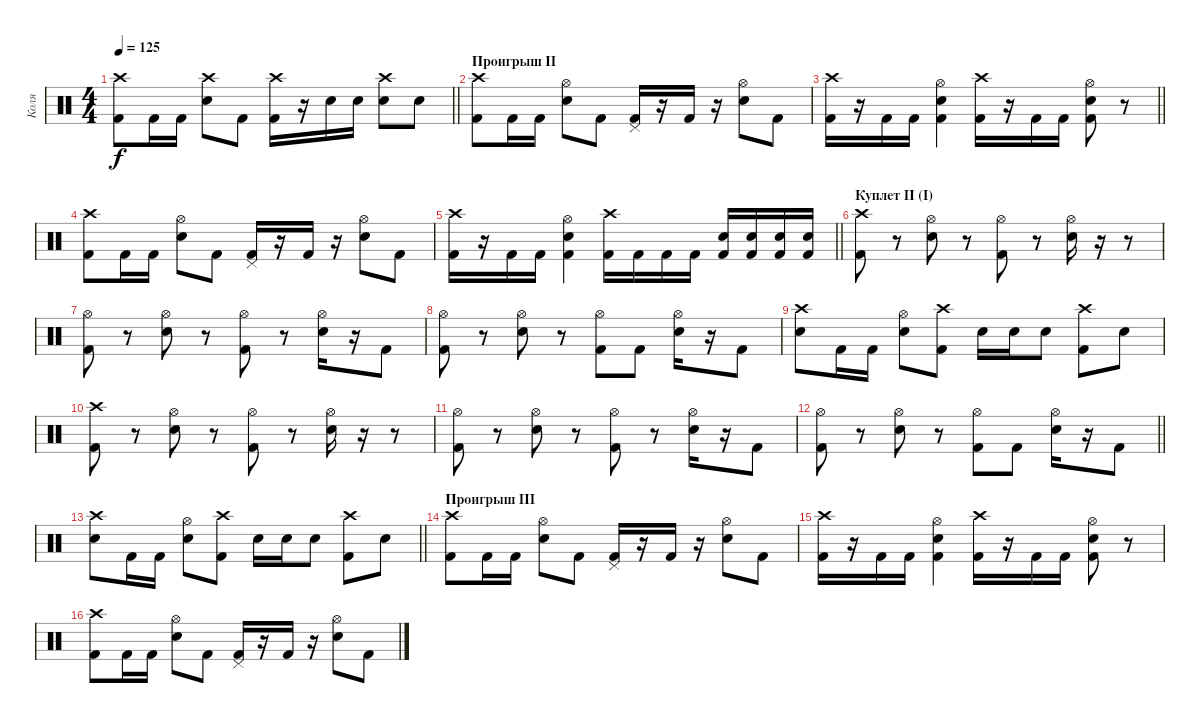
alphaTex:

\track ("Коля" "Коля") {instrument percussion}
\staff {score}
\articulation defaults
\ts (4 4)
\tempo 125
\clef neutral
\barLineRight lightlight
\ks c
("Kick (hit) 2" "Crash high (hit)").8{dy f} "Kick (hit) 2".16 "Kick (hit) 2".16 ("Electric Snare (hit)" "Crash high (hit)").8 "Kick (hit) 2".8 ("Kick (hit) 2" "Crash high (hit)").16 r.16 "Electric Snare (hit)".16 "Electric Snare (hit)".16 ("Electric Snare (hit)" "Crash high (hit)").8 "Electric Snare (hit)".8 |
\section ("" "Проигрыш II")
("Kick (hit) 2" "Crash high (hit)").8 "Kick (hit) 2".16 "Kick (hit) 2".16 ("Electric Snare (hit)" "Hi-Hat (open)").8 "Kick (hit) 2".8 ("Kick (hit) 2" "Pedal Hi-Hat (hit)").16 r.16 "Kick (hit) 2".16 r.16 ("Electric Snare (hit)" "Hi-Hat (open)").8 "Kick (hit) 2".8 |
\barLineRight lightlight
("Kick (hit) 2" "Crash high (hit)").16 r.16 "Kick (hit) 2".16 "Kick (hit) 2".16 ("Kick (hit) 2" "Electric Snare (hit)" "Hi-Hat (open)").4 ("Kick (hit) 2" "Crash high (hit)").16 r.16 "Kick (hit) 2".16 "Kick (hit) 2".16 ("Kick (hit) 2" "Electric Snare (hit)" "Hi-Hat (open)").8 r.8 |
("Kick (hit) 2" "Crash high (hit)").8 "Kick (hit) 2".16 "Kick (hit) 2".16 ("Electric Snare (hit)" "Hi-Hat (open)").8 "Kick (hit) 2".8 ("Kick (hit) 2" "Pedal Hi-Hat (hit)").16 r.16 "Kick (hit) 2".16 r.16 ("Electric Snare (hit)" "Hi-Hat (open)").8 "Kick (hit) 2".8 |
\barLineRight lightlight
("Kick (hit) 2" "Crash high (hit)").16 r.16 "Kick (hit) 2".16 "Kick (hit) 2".16 ("Kick (hit) 2" "Electric Snare (hit)" "Hi-Hat (open)").4 ("Kick (hit) 2" "Crash high (hit)").16 "Kick (hit) 2".16 "Kick (hit) 2".16 "Kick (hit) 2".16 ("Kick (hit) 2" "Electric Snare (hit)").16 ("Kick (hit) 2" "Electric Snare (hit)").16 ("Kick (hit) 2" "Electric Snare (hit)").16 ("Kick (hit) 2" "Electric Snare (hit)").16 |
\section ("" "Куплет II (I)")
("Kick (hit) 2" "Crash high (hit)").8 r.8 ("Electric Snare (hit)" "Hi-Hat (open)").8 r.8 ("Kick (hit) 2" "Hi-Hat (open)").8 r.8 ("Electric Snare (hit)" "Hi-Hat (open)").16 r.16 r.8 |
("Kick (hit) 2" "Hi-Hat (open)").8 r.8 ("Electric Snare (hit)" "Hi-Hat (open)").8 r.8 ("Kick (hit) 2" "Hi-Hat (open)").8 r.8 ("Electric Snare (hit)" "Hi-Hat (open)").16 r.16 "Kick (hit) 2".8 |
("Kick (hit) 2" "Hi-Hat (open)").8 r.8 ("Electric Snare (hit)" "Hi-Hat (open)").8 r.8 ("Kick (hit) 2" "Hi-Hat (open)").8 "Kick (hit) 2".8 ("Electric Snare (hit)" "Hi-Hat (open)").16 r.16 "Kick (hit) 2".8 |
("Electric Snare (hit)" "Crash high (hit)").8 "Kick (hit) 2".16 "Kick (hit) 2".16 ("Electric Snare (hit)" "Hi-Hat (open)").8 ("Kick (hit) 2" "Crash high (hit)").8 "Electric Snare (hit)".16 "Electric Snare (hit)".16 "Electric Snare (hit)".8 ("Kick (hit) 2" "Crash high (hit)").8 "Electric Snare (hit)".8 |
("Kick (hit) 2" "Crash high (hit)").8 r.8 ("Electric Snare (hit)" "Hi-Hat (open)").8 r.8 ("Kick (hit) 2" "Hi-Hat (open)").8 r.8 ("Electric Snare (hit)" "Hi-Hat (open)").16 r.16 r.8 |
("Kick (hit) 2" "Hi-Hat (open)").8 r.8 ("Electric Snare (hit)" "Hi-Hat (open)").8 r.8 ("Kick (hit) 2" "Hi-Hat (open)").8 r.8 ("Electric Snare (hit)" "Hi-Hat (open)").16 r.16 "Kick (hit) 2".8 |
\barLineRight lightlight
("Kick (hit) 2" "Hi-Hat (open)").8 r.8 ("Electric Snare (hit)" "Hi-Hat (open)").8 r.8 ("Kick (hit) 2" "Hi-Hat (open)").8 "Kick (hit) 2".8 ("Electric Snare (hit)" "Hi-Hat (open)").16 r.16 "Kick (hit) 2".8 |
\barLineRight lightlight
("Electric Snare (hit)" "Crash high (hit)").8 "Kick (hit) 2".16 "Kick (hit) 2".16 ("Electric Snare (hit)" "Hi-Hat (open)").8 ("Kick (hit) 2" "Crash high (hit)").8 "Electric Snare (hit)".16 "Electric Snare (hit)".16 "Electric Snare (hit)".8 ("Kick (hit) 2" "Crash high (hit)").8 "Electric Snare (hit)".8 |
\section ("" "Проигрыш III")
("Kick (hit) 2" "Crash high (hit)").8 "Kick (hit) 2".16 "Kick (hit) 2".16 ("Electric Snare (hit)" "Hi-Hat (open)").8 "Kick (hit) 2".8 ("Kick (hit) 2" "Pedal Hi-Hat (hit)").16 r.16 "Kick (hit) 2".16 r.16 ("Electric Snare (hit)" "Hi-Hat (open)").8 "Kick (hit) 2".8 |
("Kick (hit) 2" "Crash high (hit)").16 r.16 "Kick (hit) 2".16 "Kick (hit) 2".16 ("Kick (hit) 2" "Electric Snare (hit)" "Hi-Hat (open)").4 ("Kick (hit) 2" "Crash high (hit)").16 r.16 "Kick (hit) 2".16 "Kick (hit) 2".16 ("Kick (hit) 2" "Electric Snare (hit)" "Hi-Hat (open)").8 r.8 |
("Kick (hit) 2" "Crash high (hit)").8 "Kick (hit) 2".16 "Kick (hit) 2".16 ("Electric Snare (hit)" "Hi-Hat (open)").8 "Kick (hit) 2".8 ("Kick (hit) 2" "Pedal Hi-Hat (hit)").16 r.16 "Kick (hit) 2".16 r.16 ("Electric Snare (hit)" "Hi-Hat (open)").8 "Kick (hit) 2".8
